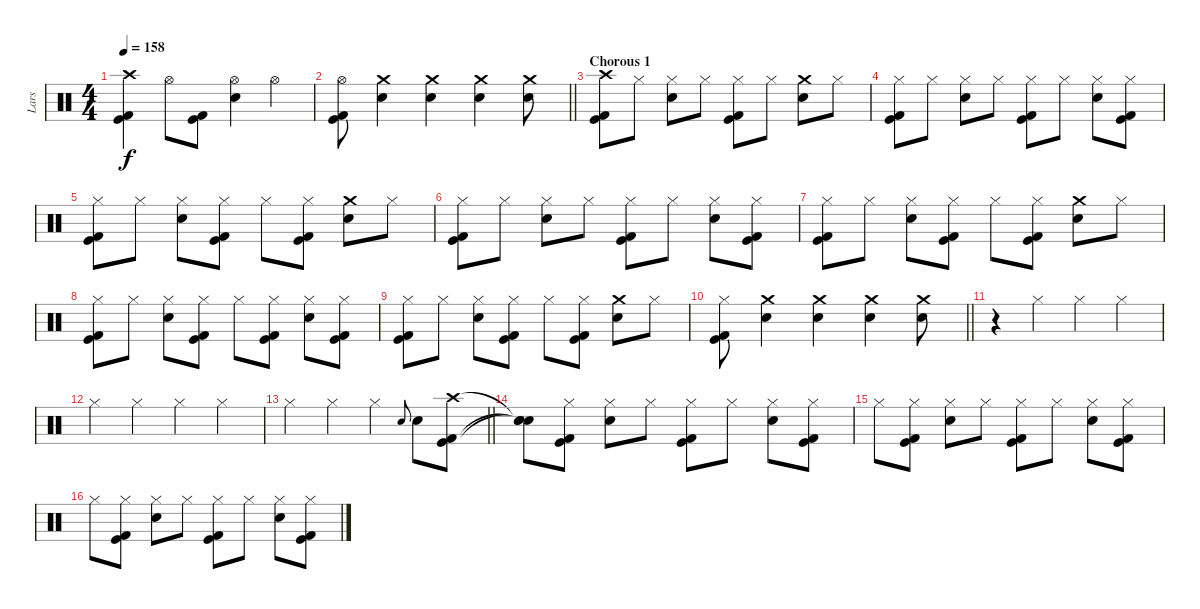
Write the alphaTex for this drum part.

\track ("Lars" "Lars") {instrument percussion}
\staff {score}
\articulation defaults
\ts (4 4)
\tempo 158
\clef neutral
\ks c
("Crash high (hit)" "Kick (hit)" "Kick (hit) 2").4{dy f} "Hi-Hat (open)".8 ("Kick (hit)" "Kick (hit) 2").8 ("Hi-Hat (open)" "Electric Snare (hit)").4 "Hi-Hat (open)".4 |
\barLineRight lightlight
("Hi-Hat (open)" "Kick (hit)" "Kick (hit) 2").8 ("Crash medium (hit)" "Electric Snare (hit)").4 ("Crash medium (hit)" "Electric Snare (hit)").4 ("Crash medium (hit)" "Electric Snare (hit)").4 ("Crash medium (hit)" "Electric Snare (hit)").8 |
\section ("" "Chorous 1")
("Crash high (hit)" "Kick (hit)" "Kick (hit) 2").8 "Hi-Hat (closed)".8 ("Hi-Hat (closed)" "Electric Snare (hit)").8 "Hi-Hat (closed)".8 ("Hi-Hat (closed)" "Kick (hit)" "Kick (hit) 2").8 "Hi-Hat (closed)".8 ("Crash medium (hit)" "Electric Snare (hit)").8 "Hi-Hat (closed)".8 |
("Hi-Hat (closed)" "Kick (hit)" "Kick (hit) 2").8 "Hi-Hat (closed)".8 ("Hi-Hat (closed)" "Electric Snare (hit)").8 "Hi-Hat (closed)".8 ("Hi-Hat (closed)" "Kick (hit)" "Kick (hit) 2").8 "Hi-Hat (closed)".8 ("Hi-Hat (closed)" "Electric Snare (hit)").8 ("Hi-Hat (closed)" "Kick (hit)" "Kick (hit) 2").8 |
("Hi-Hat (closed)" "Kick (hit)" "Kick (hit) 2").8 "Hi-Hat (closed)".8 ("Hi-Hat (closed)" "Electric Snare (hit)").8 ("Hi-Hat (closed)" "Kick (hit)" "Kick (hit) 2").8 "Hi-Hat (closed)".8 ("Hi-Hat (closed)" "Kick (hit)" "Kick (hit) 2").8 ("Crash medium (hit)" "Electric Snare (hit)").8 "Hi-Hat (closed)".8 |
("Hi-Hat (closed)" "Kick (hit)" "Kick (hit) 2").8 "Hi-Hat (closed)".8 ("Hi-Hat (closed)" "Electric Snare (hit)").8 "Hi-Hat (closed)".8 ("Hi-Hat (closed)" "Kick (hit)" "Kick (hit) 2").8 "Hi-Hat (closed)".8 ("Hi-Hat (closed)" "Electric Snare (hit)").8 ("Hi-Hat (closed)" "Kick (hit)" "Kick (hit) 2").8 |
("Hi-Hat (closed)" "Kick (hit)" "Kick (hit) 2").8 "Hi-Hat (closed)".8 ("Hi-Hat (closed)" "Electric Snare (hit)").8 ("Hi-Hat (closed)" "Kick (hit)" "Kick (hit) 2").8 "Hi-Hat (closed)".8 ("Hi-Hat (closed)" "Kick (hit)" "Kick (hit) 2").8 ("Crash medium (hit)" "Electric Snare (hit)").8 "Hi-Hat (closed)".8 |
("Hi-Hat (closed)" "Kick (hit)" "Kick (hit) 2").8 "Hi-Hat (closed)".8 ("Hi-Hat (closed)" "Electric Snare (hit)").8 ("Hi-Hat (closed)" "Kick (hit)" "Kick (hit) 2").8 "Hi-Hat (closed)".8 ("Hi-Hat (closed)" "Kick (hit)" "Kick (hit) 2").8 ("Hi-Hat (closed)" "Electric Snare (hit)").8 ("Hi-Hat (closed)" "Kick (hit)" "Kick (hit) 2").8 |
("Hi-Hat (closed)" "Kick (hit)" "Kick (hit) 2").8 "Hi-Hat (closed)".8 ("Hi-Hat (closed)" "Electric Snare (hit)").8 ("Hi-Hat (closed)" "Kick (hit)" "Kick (hit) 2").8 "Hi-Hat (closed)".8 ("Hi-Hat (closed)" "Kick (hit)" "Kick (hit) 2").8 ("Crash medium (hit)" "Electric Snare (hit)").8 "Hi-Hat (closed)".8 |
\barLineRight lightlight
("Hi-Hat (closed)" "Kick (hit)" "Kick (hit) 2").8 ("Crash medium (hit)" "Electric Snare (hit)").4 ("Crash medium (hit)" "Electric Snare (hit)").4 ("Crash medium (hit)" "Electric Snare (hit)").4 ("Crash medium (hit)" "Electric Snare (hit)").8 |
\section ("" "")
r.4 "Hi-Hat (closed)".4 "Hi-Hat (closed)".4 "Hi-Hat (closed)".4 |
"Hi-Hat (closed)".4 "Hi-Hat (closed)".4 "Hi-Hat (closed)".4 "Hi-Hat (closed)".4 |
\barLineRight lightlight "Hi-Hat (closed)".4 "Hi-Hat (closed)".4 "Hi-Hat (closed)".4 "Electric Snare (hit)".8{gr onbeat} "Electric Snare (hit)".8
("Crash high (hit)" "Kick (hit)" "Kick (hit) 2").8 |
\section ("" "")
("Snare (hit)"{t} "Snare (hit)"{t} "Snare (hit)"{t}).8 ("Hi-Hat (closed)" "Kick (hit)" "Kick (hit) 2").8 ("Hi-Hat (closed)" "Electric Snare (hit)").8 "Hi-Hat (closed)".8 ("Hi-Hat (closed)" "Kick (hit)" "Kick (hit) 2").8 "Hi-Hat (closed)".8 ("Hi-Hat (closed)" "Electric Snare (hit)").8 ("Hi-Hat (closed)" "Kick (hit)" "Kick (hit) 2").8 |
"Hi-Hat (closed)".8 ("Hi-Hat (closed)" "Kick (hit)" "Kick (hit) 2").8 ("Hi-Hat (closed)" "Electric Snare (hit)").8 "Hi-Hat (closed)".8 ("Hi-Hat (closed)" "Kick (hit)" "Kick (hit) 2").8 "Hi-Hat (closed)".8 ("Hi-Hat (closed)" "Electric Snare (hit)").8 ("Hi-Hat (closed)" "Kick (hit)" "Kick (hit) 2").8 |
"Hi-Hat (closed)".8 ("Hi-Hat (closed)" "Kick (hit)" "Kick (hit) 2").8 ("Hi-Hat (closed)" "Electric Snare (hit)").8 "Hi-Hat (closed)".8 ("Hi-Hat (closed)" "Kick (hit)" "Kick (hit) 2").8 "Hi-Hat (closed)".8 ("Hi-Hat (closed)" "Electric Snare (hit)").8 ("Hi-Hat (closed)" "Kick (hit)" "Kick (hit) 2").8
